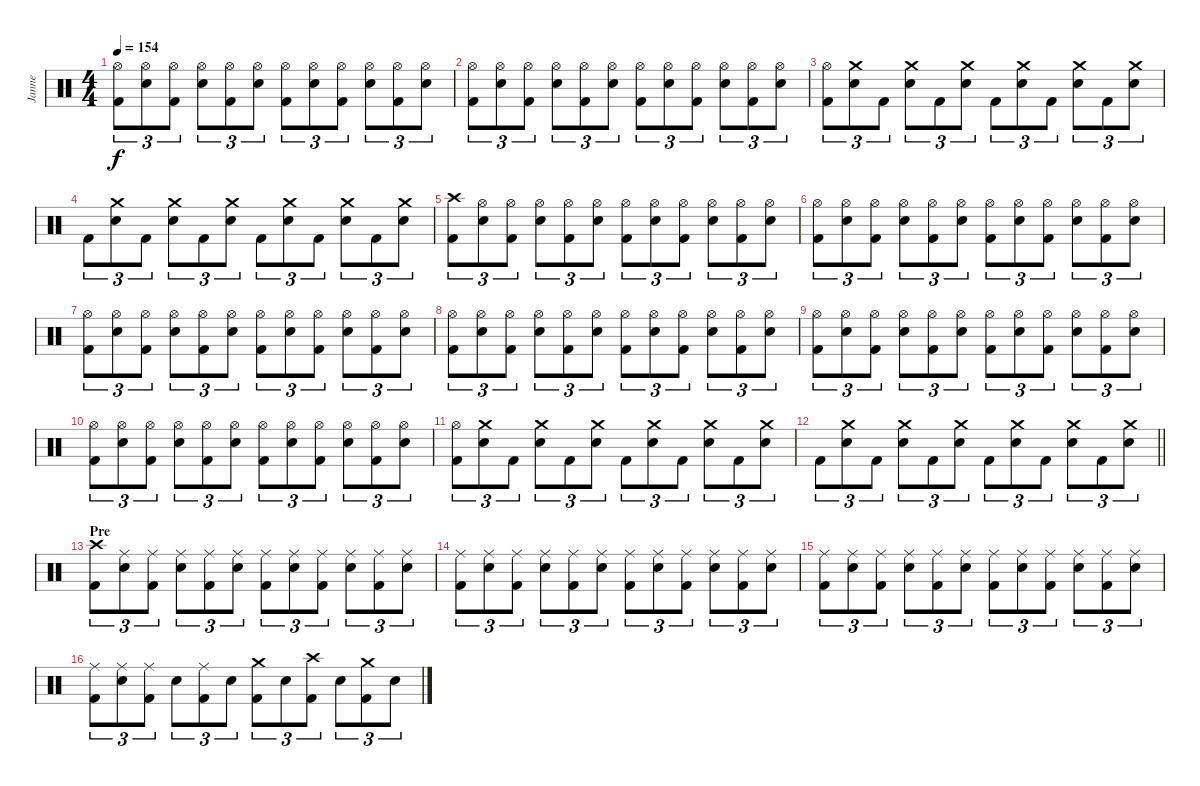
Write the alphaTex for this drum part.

\track ("Janne" "Janne") {instrument percussion}
\staff {score}
\articulation defaults
\ts (4 4)
\tempo 154
\clef neutral
\ks c
("Hi-Hat (open)" "Kick (hit) 2").8{tu (3 2) dy f} ("Hi-Hat (open)" "Electric Snare (hit)").8{tu (3 2)} ("Hi-Hat (open)" "Kick (hit) 2").8{tu (3 2)} ("Hi-Hat (open)" "Electric Snare (hit)").8{tu (3 2)} ("Hi-Hat (open)" "Kick (hit) 2").8{tu (3 2)} ("Hi-Hat (open)" "Electric Snare (hit)").8{tu (3 2)} ("Hi-Hat (open)" "Kick (hit) 2").8{tu (3 2)} ("Hi-Hat (open)" "Electric Snare (hit)").8{tu (3 2)} ("Hi-Hat (open)" "Kick (hit) 2").8{tu (3 2)} ("Hi-Hat (open)" "Electric Snare (hit)").8{tu (3 2)} ("Hi-Hat (open)" "Kick (hit) 2").8{tu (3 2)} ("Hi-Hat (open)" "Electric Snare (hit)").8{tu (3 2)} |
("Hi-Hat (open)" "Kick (hit) 2").8{tu (3 2)} ("Hi-Hat (open)" "Electric Snare (hit)").8{tu (3 2)} ("Hi-Hat (open)" "Kick (hit) 2").8{tu (3 2)} ("Hi-Hat (open)" "Electric Snare (hit)").8{tu (3 2)} ("Hi-Hat (open)" "Kick (hit) 2").8{tu (3 2)} ("Hi-Hat (open)" "Electric Snare (hit)").8{tu (3 2)} ("Hi-Hat (open)" "Kick (hit) 2").8{tu (3 2)} ("Hi-Hat (open)" "Electric Snare (hit)").8{tu (3 2)} ("Hi-Hat (open)" "Kick (hit) 2").8{tu (3 2)} ("Hi-Hat (open)" "Electric Snare (hit)").8{tu (3 2)} ("Hi-Hat (open)" "Kick (hit) 2").8{tu (3 2)} ("Hi-Hat (open)" "Electric Snare (hit)").8{tu (3 2)} |
("Hi-Hat (open)" "Kick (hit) 2").8{tu (3 2)} ("Crash medium (hit)" "Electric Snare (hit)").8{tu (3 2)} "Kick (hit) 2".8{tu (3 2)} ("Crash medium (hit)" "Electric Snare (hit)").8{tu (3 2)} "Kick (hit) 2".8{tu (3 2)} ("Crash medium (hit)" "Electric Snare (hit)").8{tu (3 2)} "Kick (hit) 2".8{tu (3 2)} ("Crash medium (hit)" "Electric Snare (hit)").8{tu (3 2)} "Kick (hit) 2".8{tu (3 2)} ("Crash medium (hit)" "Electric Snare (hit)").8{tu (3 2)} "Kick (hit) 2".8{tu (3 2)} ("Crash medium (hit)" "Electric Snare (hit)").8{tu (3 2)} |
"Kick (hit) 2".8{tu (3 2)} ("Crash medium (hit)" "Electric Snare (hit)").8{tu (3 2)} "Kick (hit) 2".8{tu (3 2)} ("Crash medium (hit)" "Electric Snare (hit)").8{tu (3 2)} "Kick (hit) 2".8{tu (3 2)} ("Crash medium (hit)" "Electric Snare (hit)").8{tu (3 2)} "Kick (hit) 2".8{tu (3 2)} ("Crash medium (hit)" "Electric Snare (hit)").8{tu (3 2)} "Kick (hit) 2".8{tu (3 2)} ("Crash medium (hit)" "Electric Snare (hit)").8{tu (3 2)} "Kick (hit) 2".8{tu (3 2)} ("Crash medium (hit)" "Electric Snare (hit)").8{tu (3 2)} |
("Crash high (hit)" "Kick (hit) 2").8{tu (3 2)} ("Hi-Hat (open)" "Electric Snare (hit)").8{tu (3 2)} ("Hi-Hat (open)" "Kick (hit) 2").8{tu (3 2)} ("Hi-Hat (open)" "Electric Snare (hit)").8{tu (3 2)} ("Hi-Hat (open)" "Kick (hit) 2").8{tu (3 2)} ("Hi-Hat (open)" "Electric Snare (hit)").8{tu (3 2)} ("Hi-Hat (open)" "Kick (hit) 2").8{tu (3 2)} ("Hi-Hat (open)" "Electric Snare (hit)").8{tu (3 2)} ("Hi-Hat (open)" "Kick (hit) 2").8{tu (3 2)} ("Hi-Hat (open)" "Electric Snare (hit)").8{tu (3 2)} ("Hi-Hat (open)" "Kick (hit) 2").8{tu (3 2)} ("Hi-Hat (open)" "Electric Snare (hit)").8{tu (3 2)} |
("Hi-Hat (open)" "Kick (hit) 2").8{tu (3 2)} ("Hi-Hat (open)" "Electric Snare (hit)").8{tu (3 2)} ("Hi-Hat (open)" "Kick (hit) 2").8{tu (3 2)} ("Hi-Hat (open)" "Electric Snare (hit)").8{tu (3 2)} ("Hi-Hat (open)" "Kick (hit) 2").8{tu (3 2)} ("Hi-Hat (open)" "Electric Snare (hit)").8{tu (3 2)} ("Hi-Hat (open)" "Kick (hit) 2").8{tu (3 2)} ("Hi-Hat (open)" "Electric Snare (hit)").8{tu (3 2)} ("Hi-Hat (open)" "Kick (hit) 2").8{tu (3 2)} ("Hi-Hat (open)" "Electric Snare (hit)").8{tu (3 2)} ("Hi-Hat (open)" "Kick (hit) 2").8{tu (3 2)} ("Hi-Hat (open)" "Electric Snare (hit)").8{tu (3 2)} |
("Hi-Hat (open)" "Kick (hit) 2").8{tu (3 2)} ("Hi-Hat (open)" "Electric Snare (hit)").8{tu (3 2)} ("Hi-Hat (open)" "Kick (hit) 2").8{tu (3 2)} ("Hi-Hat (open)" "Electric Snare (hit)").8{tu (3 2)} ("Hi-Hat (open)" "Kick (hit) 2").8{tu (3 2)} ("Hi-Hat (open)" "Electric Snare (hit)").8{tu (3 2)} ("Hi-Hat (open)" "Kick (hit) 2").8{tu (3 2)} ("Hi-Hat (open)" "Electric Snare (hit)").8{tu (3 2)} ("Hi-Hat (open)" "Kick (hit) 2").8{tu (3 2)} ("Hi-Hat (open)" "Electric Snare (hit)").8{tu (3 2)} ("Hi-Hat (open)" "Kick (hit) 2").8{tu (3 2)} ("Hi-Hat (open)" "Electric Snare (hit)").8{tu (3 2)} |
("Hi-Hat (open)" "Kick (hit) 2").8{tu (3 2)} ("Hi-Hat (open)" "Electric Snare (hit)").8{tu (3 2)} ("Hi-Hat (open)" "Kick (hit) 2").8{tu (3 2)} ("Hi-Hat (open)" "Electric Snare (hit)").8{tu (3 2)} ("Hi-Hat (open)" "Kick (hit) 2").8{tu (3 2)} ("Hi-Hat (open)" "Electric Snare (hit)").8{tu (3 2)} ("Hi-Hat (open)" "Kick (hit) 2").8{tu (3 2)} ("Hi-Hat (open)" "Electric Snare (hit)").8{tu (3 2)} ("Hi-Hat (open)" "Kick (hit) 2").8{tu (3 2)} ("Hi-Hat (open)" "Electric Snare (hit)").8{tu (3 2)} ("Hi-Hat (open)" "Kick (hit) 2").8{tu (3 2)} ("Hi-Hat (open)" "Electric Snare (hit)").8{tu (3 2)} |
("Hi-Hat (open)" "Kick (hit) 2").8{tu (3 2)} ("Hi-Hat (open)" "Electric Snare (hit)").8{tu (3 2)} ("Hi-Hat (open)" "Kick (hit) 2").8{tu (3 2)} ("Hi-Hat (open)" "Electric Snare (hit)").8{tu (3 2)} ("Hi-Hat (open)" "Kick (hit) 2").8{tu (3 2)} ("Hi-Hat (open)" "Electric Snare (hit)").8{tu (3 2)} ("Hi-Hat (open)" "Kick (hit) 2").8{tu (3 2)} ("Hi-Hat (open)" "Electric Snare (hit)").8{tu (3 2)} ("Hi-Hat (open)" "Kick (hit) 2").8{tu (3 2)} ("Hi-Hat (open)" "Electric Snare (hit)").8{tu (3 2)} ("Hi-Hat (open)" "Kick (hit) 2").8{tu (3 2)} ("Hi-Hat (open)" "Electric Snare (hit)").8{tu (3 2)} |
("Hi-Hat (open)" "Kick (hit) 2").8{tu (3 2)} ("Hi-Hat (open)" "Electric Snare (hit)").8{tu (3 2)} ("Hi-Hat (open)" "Kick (hit) 2").8{tu (3 2)} ("Hi-Hat (open)" "Electric Snare (hit)").8{tu (3 2)} ("Hi-Hat (open)" "Kick (hit) 2").8{tu (3 2)} ("Hi-Hat (open)" "Electric Snare (hit)").8{tu (3 2)} ("Hi-Hat (open)" "Kick (hit) 2").8{tu (3 2)} ("Hi-Hat (open)" "Electric Snare (hit)").8{tu (3 2)} ("Hi-Hat (open)" "Kick (hit) 2").8{tu (3 2)} ("Hi-Hat (open)" "Electric Snare (hit)").8{tu (3 2)} ("Hi-Hat (open)" "Kick (hit) 2").8{tu (3 2)} ("Hi-Hat (open)" "Electric Snare (hit)").8{tu (3 2)} |
("Hi-Hat (open)" "Kick (hit) 2").8{tu (3 2)} ("Crash medium (hit)" "Electric Snare (hit)").8{tu (3 2)} "Kick (hit) 2".8{tu (3 2)} ("Crash medium (hit)" "Electric Snare (hit)").8{tu (3 2)} "Kick (hit) 2".8{tu (3 2)} ("Crash medium (hit)" "Electric Snare (hit)").8{tu (3 2)} "Kick (hit) 2".8{tu (3 2)} ("Crash medium (hit)" "Electric Snare (hit)").8{tu (3 2)} "Kick (hit) 2".8{tu (3 2)} ("Crash medium (hit)" "Electric Snare (hit)").8{tu (3 2)} "Kick (hit) 2".8{tu (3 2)} ("Crash medium (hit)" "Electric Snare (hit)").8{tu (3 2)} |
\barLineRight lightlight "Kick (hit) 2".8{tu (3 2)}
("Crash medium (hit)" "Electric Snare (hit)").8{tu (3 2)} "Kick (hit) 2".8{tu (3 2)} ("Crash medium (hit)" "Electric Snare (hit)").8{tu (3 2)} "Kick (hit) 2".8{tu (3 2)} ("Crash medium (hit)" "Electric Snare (hit)").8{tu (3 2)} "Kick (hit) 2".8{tu (3 2)} ("Crash medium (hit)" "Electric Snare (hit)").8{tu (3 2)} "Kick (hit) 2".8{tu (3 2)} ("Crash medium (hit)" "Electric Snare (hit)").8{tu (3 2)} "Kick (hit) 2".8{tu (3 2)} ("Crash medium (hit)" "Electric Snare (hit)").8{tu (3 2)} |
\section ("" "Pre")
("Crash high (hit)" "Kick (hit) 2").8{tu (3 2)} ("Ride (middle)" "Electric Snare (hit)").8{tu (3 2)} ("Ride (middle)" "Kick (hit) 2").8{tu (3 2)} ("Ride (middle)" "Electric Snare (hit)").8{tu (3 2)} ("Ride (middle)" "Kick (hit) 2").8{tu (3 2)} ("Ride (middle)" "Electric Snare (hit)").8{tu (3 2)} ("Ride (middle)" "Kick (hit) 2").8{tu (3 2)} ("Ride (middle)" "Electric Snare (hit)").8{tu (3 2)} ("Ride (middle)" "Kick (hit) 2").8{tu (3 2)} ("Ride (middle)" "Electric Snare (hit)").8{tu (3 2)} ("Ride (middle)" "Kick (hit) 2").8{tu (3 2)} ("Ride (middle)" "Electric Snare (hit)").8{tu (3 2)} |
("Ride (middle)" "Kick (hit) 2").8{tu (3 2)} ("Ride (middle)" "Electric Snare (hit)").8{tu (3 2)} ("Ride (middle)" "Kick (hit) 2").8{tu (3 2)} ("Ride (middle)" "Electric Snare (hit)").8{tu (3 2)} ("Ride (middle)" "Kick (hit) 2").8{tu (3 2)} ("Ride (middle)" "Electric Snare (hit)").8{tu (3 2)} ("Ride (middle)" "Kick (hit) 2").8{tu (3 2)} ("Ride (middle)" "Electric Snare (hit)").8{tu (3 2)} ("Ride (middle)" "Kick (hit) 2").8{tu (3 2)} ("Ride (middle)" "Electric Snare (hit)").8{tu (3 2)} ("Ride (middle)" "Kick (hit) 2").8{tu (3 2)} ("Ride (middle)" "Electric Snare (hit)").8{tu (3 2)} |
("Ride (middle)" "Kick (hit) 2").8{tu (3 2)} ("Ride (middle)" "Electric Snare (hit)").8{tu (3 2)} ("Ride (middle)" "Kick (hit) 2").8{tu (3 2)} ("Ride (middle)" "Electric Snare (hit)").8{tu (3 2)} ("Ride (middle)" "Kick (hit) 2").8{tu (3 2)} ("Ride (middle)" "Electric Snare (hit)").8{tu (3 2)} ("Ride (middle)" "Kick (hit) 2").8{tu (3 2)} ("Ride (middle)" "Electric Snare (hit)").8{tu (3 2)} ("Ride (middle)" "Kick (hit) 2").8{tu (3 2)} ("Ride (middle)" "Electric Snare (hit)").8{tu (3 2)} ("Ride (middle)" "Kick (hit) 2").8{tu (3 2)} ("Ride (middle)" "Electric Snare (hit)").8{tu (3 2)} |
("Ride (middle)" "Kick (hit) 2").8{tu (3 2)} ("Ride (middle)" "Electric Snare (hit)").8{tu (3 2)} ("Ride (middle)" "Kick (hit) 2").8{tu (3 2)} "Electric Snare (hit)".8{tu (3 2)} ("Ride (middle)" "Kick (hit) 2").8{tu (3 2)} "Electric Snare (hit)".8{tu (3 2)} ("Crash medium (hit)" "Kick (hit) 2").8{tu (3 2)} "Electric Snare (hit)".8{tu (3 2)} ("Crash high (hit)" "Kick (hit) 2").8{tu (3 2)} "Electric Snare (hit)".8{tu (3 2)} ("Crash medium (hit)" "Kick (hit) 2").8{tu (3 2)} "Electric Snare (hit)".8{tu (3 2)}
